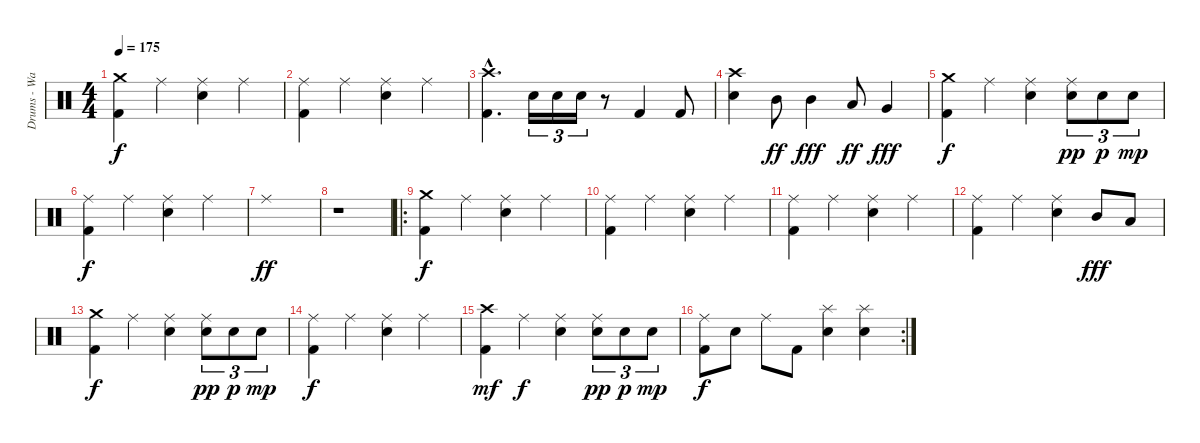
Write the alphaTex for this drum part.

\track ("Drums - Ward" "Drums - Wa") {instrument percussion}
\staff {score}
\articulation defaults
\ts (4 4)
\tempo 175
\clef neutral
\ks c
("Crash medium (hit)" "Kick (hit) 2").4{dy f} "Ride (middle)".4 ("Ride (middle)" "Electric Snare (hit)").4 "Ride (middle)".4 |
("Ride (middle)" "Kick (hit) 2").4 "Ride (middle)".4 ("Ride (middle)" "Electric Snare (hit)").4 "Ride (middle)".4 |
("Crash high (hit)"{hac} "Kick (hit) 2"{hac}).4{d} "Electric Snare (hit)".16{tu (3 2)} "Electric Snare (hit)".16{tu (3 2)} "Electric Snare (hit)".16{tu (3 2)} r.8 "Kick (hit) 2".4 "Kick (hit) 2".8 |
("Crash high (hit)" "Electric Snare (hit)").4 "Mid Tom (hit)".8{dy ff} "Mid Tom (hit)".4{dy fff} "Low Tom (hit)".8{dy ff} "Very Low Tom (hit)".4{dy fff} |
("Crash medium (hit)" "Kick (hit) 2").4{dy f} "Ride (middle)".4 ("Ride (middle)" "Electric Snare (hit)").4 ("Ride (middle)" "Electric Snare (hit)").8{tu (3 2) dy pp} "Electric Snare (hit)".8{tu (3 2) dy p} "Electric Snare (hit)".8{tu (3 2) dy mp} |
("Ride (middle)" "Kick (hit) 2").4{dy f} "Ride (middle)".4 ("Ride (middle)" "Electric Snare (hit)").4 "Ride (middle)".4 |
"Ride (middle)".1{dy ff} |
r.1 |
\ro
("Crash medium (hit)" "Kick (hit) 2").4{dy f} "Ride (middle)".4 ("Ride (middle)" "Electric Snare (hit)").4 "Ride (middle)".4 |
("Ride (middle)" "Kick (hit) 2").4 "Ride (middle)".4 ("Ride (middle)" "Electric Snare (hit)").4 "Ride (middle)".4 |
("Ride (middle)" "Kick (hit) 2").4 "Ride (middle)".4 ("Ride (middle)" "Electric Snare (hit)").4 "Ride (middle)".4 |
("Ride (middle)" "Kick (hit) 2").4 "Ride (middle)".4 ("Ride (middle)" "Electric Snare (hit)").4 "Mid Tom (hit)".8{dy fff} "Low Tom (hit)".8 |
("Crash medium (hit)" "Kick (hit) 2").4{dy f} "Ride (middle)".4 ("Ride (middle)" "Electric Snare (hit)").4 ("Ride (middle)" "Electric Snare (hit)").8{tu (3 2) dy pp} "Electric Snare (hit)".8{tu (3 2) dy p} "Electric Snare (hit)".8{tu (3 2) dy mp} |
("Ride (middle)" "Kick (hit) 2").4{dy f} "Ride (middle)".4 ("Ride (middle)" "Electric Snare (hit)").4 "Ride (middle)".4 |
("Crash high (hit)" "Kick (hit) 2").4{dy mf} "Ride (middle)".4{dy f} ("Ride (middle)" "Electric Snare (hit)").4 ("Ride (middle)" "Electric Snare (hit)").8{tu (3 2) dy pp} "Electric Snare (hit)".8{tu (3 2) dy p} "Electric Snare (hit)".8{tu (3 2) dy mp} |
\rc 2
("Ride (middle)" "Kick (hit) 2").8{dy f} "Electric Snare (hit)".8 "Ride (middle)".8 "Kick (hit) 2".8 ("Splash (hit)" "Electric Snare (hit)").4 ("Splash (hit)" "Electric Snare (hit)").4
